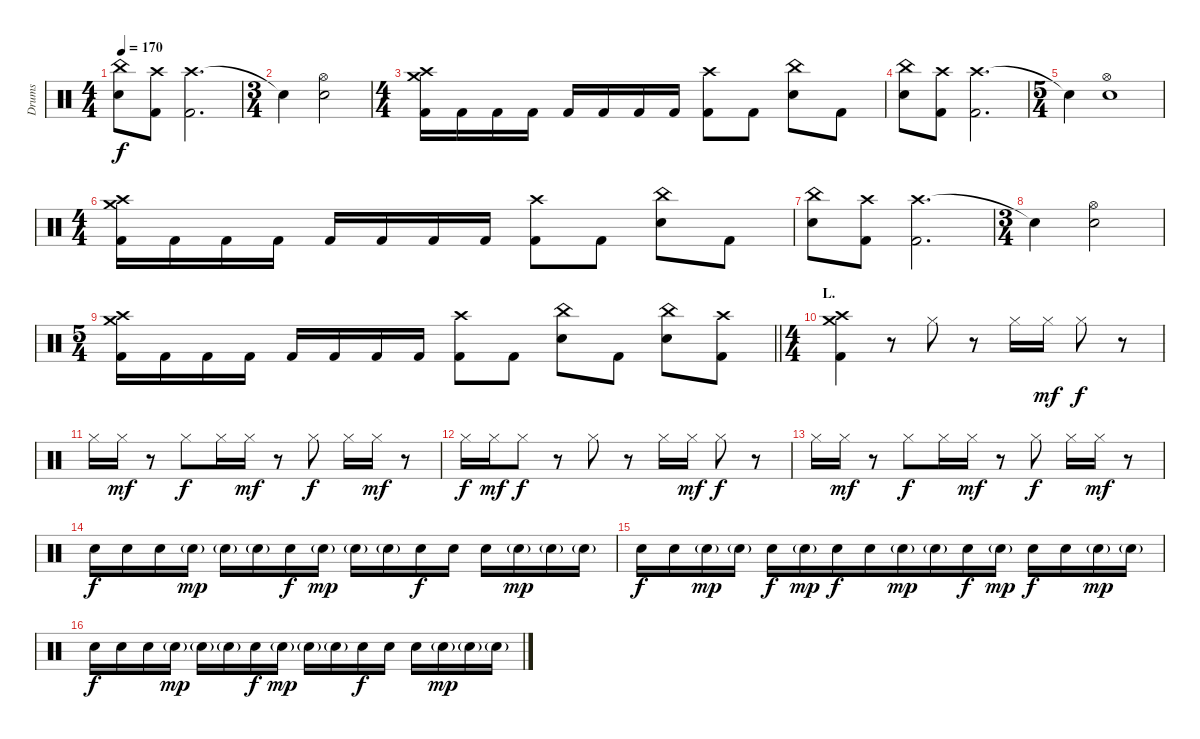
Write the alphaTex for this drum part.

\track ("Drums" "Drums") {instrument percussion}
\staff {score}
\articulation defaults
\ts (4 4)
\tempo 170
\clef neutral
\ks c
("China (hit)" "Electric Snare (hit)").8{dy f} ("Crash high (hit)" "Kick (hit) 2").8 ("Crash high (hit)" "Kick (hit) 2").2{d} |
\ts (3 4)
"Snare (hit)"{t}.4 ("Hi-Hat (open)" "Electric Snare (hit)").2 |
\ts (4 4)
("Crash medium (hit)" "Crash high (hit)" "Kick (hit) 2").16 "Kick (hit) 2".16 "Kick (hit) 2".16 "Kick (hit) 2".16 "Kick (hit) 2".16 "Kick (hit) 2".16 "Kick (hit) 2".16 "Kick (hit) 2".16 ("Crash high (hit)" "Kick (hit) 2").8 "Kick (hit) 2".8 ("China (hit)" "Electric Snare (hit)").8 "Kick (hit) 2".8 |
("China (hit)" "Electric Snare (hit)").8 ("Crash high (hit)" "Kick (hit) 2").8 ("Crash high (hit)" "Kick (hit) 2").2{d} |
\ts (5 4)
"Snare (hit)"{t}.4 ("Hi-Hat (open)" "Electric Snare (hit)").1 |
\ts (4 4)
("Crash medium (hit)" "Crash high (hit)" "Kick (hit) 2").16 "Kick (hit) 2".16 "Kick (hit) 2".16 "Kick (hit) 2".16 "Kick (hit) 2".16 "Kick (hit) 2".16 "Kick (hit) 2".16 "Kick (hit) 2".16 ("Crash high (hit)" "Kick (hit) 2").8 "Kick (hit) 2".8 ("China (hit)" "Electric Snare (hit)").8 "Kick (hit) 2".8 |
("China (hit)" "Electric Snare (hit)").8 ("Crash high (hit)" "Kick (hit) 2").8 ("Crash high (hit)" "Kick (hit) 2").2{d} |
\ts (3 4)
"Snare (hit)"{t}.4 ("Hi-Hat (open)" "Electric Snare (hit)").2 |
\ts (5 4)
\barLineRight lightlight
("Crash medium (hit)" "Crash high (hit)" "Kick (hit) 2").16 "Kick (hit) 2".16 "Kick (hit) 2".16 "Kick (hit) 2".16 "Kick (hit) 2".16 "Kick (hit) 2".16 "Kick (hit) 2".16 "Kick (hit) 2".16 ("Crash high (hit)" "Kick (hit) 2").8 "Kick (hit) 2".8 ("China (hit)" "Electric Snare (hit)").8 "Kick (hit) 2".8 ("China (hit)" "Electric Snare (hit)").8 ("Crash high (hit)" "Kick (hit) 2").8 |
\ts (4 4)
\section ("" "L.")
("Crash medium (hit)" "Crash high (hit)" "Kick (hit) 2").4 r.8 "Hi-Hat (closed)".8 r.8 "Hi-Hat (closed)".16 "Hi-Hat (closed)".16{dy mf} "Hi-Hat (closed)".8{dy f} r.8 |
"Hi-Hat (closed)".16 "Hi-Hat (closed)".16{dy mf} r.8 "Hi-Hat (closed)".8{dy f} "Hi-Hat (closed)".16 "Hi-Hat (closed)".16{dy mf} r.8 "Hi-Hat (closed)".8{dy f} "Hi-Hat (closed)".16 "Hi-Hat (closed)".16{dy mf} r.8 |
"Hi-Hat (closed)".16{dy f} "Hi-Hat (closed)".16{dy mf} "Hi-Hat (closed)".8{dy f} r.8 "Hi-Hat (closed)".8 r.8 "Hi-Hat (closed)".16 "Hi-Hat (closed)".16{dy mf} "Hi-Hat (closed)".8{dy f} r.8 |
"Hi-Hat (closed)".16 "Hi-Hat (closed)".16{dy mf} r.8 "Hi-Hat (closed)".8{dy f} "Hi-Hat (closed)".16 "Hi-Hat (closed)".16{dy mf} r.8 "Hi-Hat (closed)".8{dy f} "Hi-Hat (closed)".16 "Hi-Hat (closed)".16{dy mf} r.8 |
"Electric Snare (hit)".16{dy f} "Electric Snare (hit)".16{beam merge} "Electric Snare (hit)".16 "Electric Snare (hit)"{g}.16{dy mp} "Electric Snare (hit)"{g}.16 "Electric Snare (hit)"{g}.16 "Electric Snare (hit)".16{dy f} "Electric Snare (hit)"{g}.16{dy mp} "Electric Snare (hit)"{g}.16 "Electric Snare (hit)"{g}.16 "Electric Snare (hit)".16{dy f} "Electric Snare (hit)".16 "Electric Snare (hit)".16 "Electric Snare (hit)"{g}.16{dy mp beam merge} "Electric Snare (hit)"{g}.16 "Electric Snare (hit)"{g}.16 |
"Electric Snare (hit)".16{dy f beam merge} "Electric Snare (hit)".16 "Electric Snare (hit)"{g}.16{dy mp beam merge} "Electric Snare (hit)"{g}.16 "Electric Snare (hit)".16{dy f} "Electric Snare (hit)"{g}.16{dy mp} "Electric Snare (hit)".16{dy f beam merge} "Electric Snare (hit)".16{beam merge} "Electric Snare (hit)"{g}.16{dy mp beam merge} "Electric Snare (hit)"{g}.16{beam merge} "Electric Snare (hit)".16{dy f} "Electric Snare (hit)"{g}.16{dy mp} "Electric Snare (hit)".16{dy f beam merge} "Electric Snare (hit)".16{beam merge} "Electric Snare (hit)"{g}.16{dy mp} "Electric Snare (hit)"{g}.16 |
"Electric Snare (hit)".16{dy f} "Electric Snare (hit)".16{beam merge} "Electric Snare (hit)".16 "Electric Snare (hit)"{g}.16{dy mp} "Electric Snare (hit)"{g}.16 "Electric Snare (hit)"{g}.16 "Electric Snare (hit)".16{dy f} "Electric Snare (hit)"{g}.16{dy mp} "Electric Snare (hit)"{g}.16 "Electric Snare (hit)"{g}.16 "Electric Snare (hit)".16{dy f} "Electric Snare (hit)".16 "Electric Snare (hit)".16 "Electric Snare (hit)"{g}.16{dy mp beam merge} "Electric Snare (hit)"{g}.16 "Electric Snare (hit)"{g}.16
